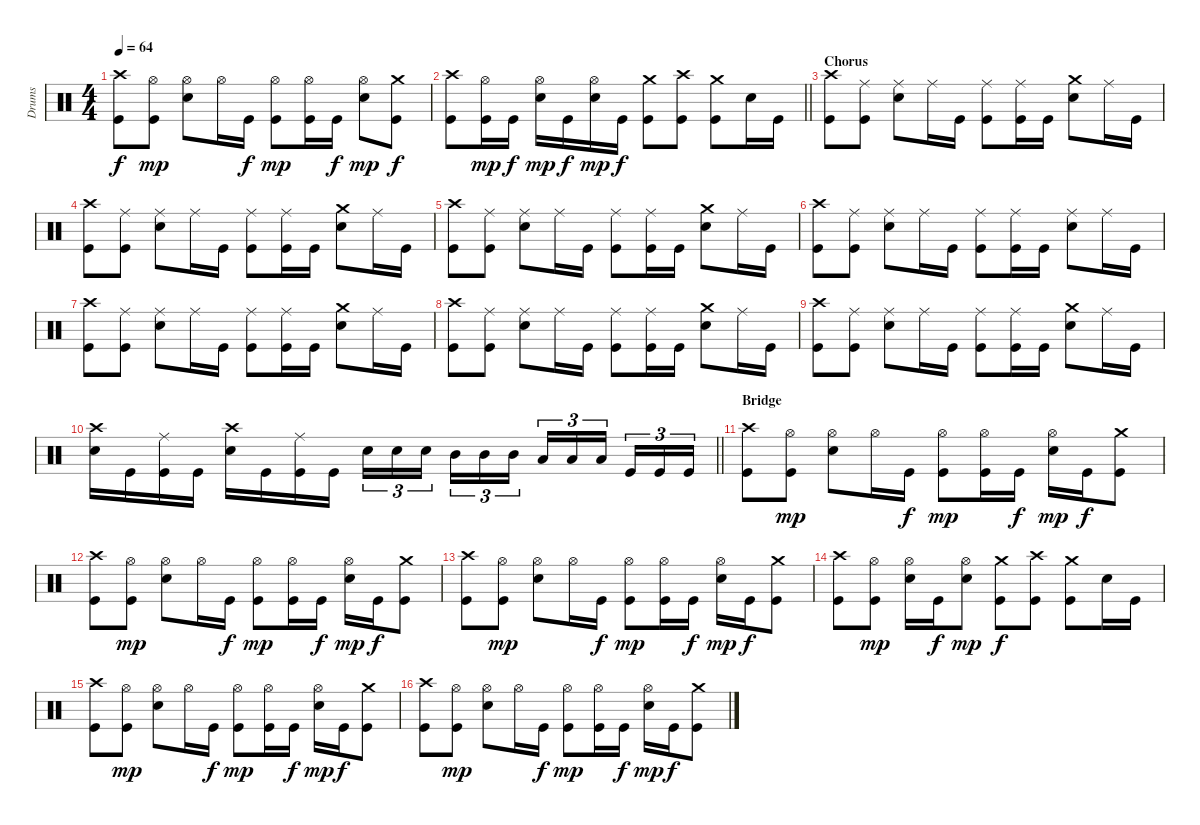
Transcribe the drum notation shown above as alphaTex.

\track ("Drums" "Drums") {instrument percussion}
\staff {score}
\articulation defaults
\ts (4 4)
\tempo 64
\clef neutral
\ks c
("Crash high (hit)" "Kick (hit)").8{dy f} ("Hi-Hat (open)" "Kick (hit)").8{dy mp} ("Hi-Hat (open)" "Snare (hit) 2").8 "Hi-Hat (open)".16 "Kick (hit)".16{dy f} ("Hi-Hat (open)" "Kick (hit)").8{dy mp} ("Hi-Hat (open)" "Kick (hit)").16 "Kick (hit)".16{dy f} ("Hi-Hat (open)" "Snare (hit) 2").8{dy mp} ("Crash medium (hit)" "Kick (hit)").8{dy f} |
\barLineRight lightlight
("Crash high (hit)" "Kick (hit)").8 ("Hi-Hat (open)" "Kick (hit)").16{dy mp} "Kick (hit)".16{dy f} ("Hi-Hat (open)" "Snare (hit) 2").16{dy mp} "Kick (hit)".16{dy f} ("Hi-Hat (open)" "Snare (hit) 2").16{dy mp} "Kick (hit)".16{dy f} ("Crash medium (hit)" "Kick (hit)").8 ("Crash high (hit)" "Kick (hit)").8 ("Crash medium (hit)" "Kick (hit)").8 "Snare (hit) 2".16 "Kick (hit)".16 |
\section ("" "Chorus")
("Crash high (hit)" "Kick (hit)").8 ("Ride (middle)" "Kick (hit)").8 ("Ride (middle)" "Snare (hit) 2").8 "Ride (middle)".16 "Kick (hit)".16 ("Ride (middle)" "Kick (hit)").8 ("Ride (middle)" "Kick (hit)").16 "Kick (hit)".16 ("Crash medium (hit)" "Snare (hit) 2").8 "Ride (middle)".16 "Kick (hit)".16 |
("Crash high (hit)" "Kick (hit)").8 ("Ride (middle)" "Kick (hit)").8 ("Ride (middle)" "Snare (hit) 2").8 "Ride (middle)".16 "Kick (hit)".16 ("Ride (middle)" "Kick (hit)").8 ("Ride (middle)" "Kick (hit)").16 "Kick (hit)".16 ("Crash medium (hit)" "Snare (hit) 2").8 "Ride (middle)".16 "Kick (hit)".16 |
("Crash high (hit)" "Kick (hit)").8 ("Ride (middle)" "Kick (hit)").8 ("Ride (middle)" "Snare (hit) 2").8 "Ride (middle)".16 "Kick (hit)".16 ("Ride (middle)" "Kick (hit)").8 ("Ride (middle)" "Kick (hit)").16 "Kick (hit)".16 ("Crash medium (hit)" "Snare (hit) 2").8 "Ride (middle)".16 "Kick (hit)".16 |
("Crash high (hit)" "Kick (hit)").8 ("Ride (middle)" "Kick (hit)").8 ("Ride (middle)" "Snare (hit) 2").8 "Ride (middle)".16 "Kick (hit)".16 ("Ride (middle)" "Kick (hit)").8 ("Ride (middle)" "Kick (hit)").16 "Kick (hit)".16 ("Ride (middle)" "Snare (hit) 2").8 "Ride (middle)".16 "Kick (hit)".16 |
("Crash high (hit)" "Kick (hit)").8 ("Ride (middle)" "Kick (hit)").8 ("Ride (middle)" "Snare (hit) 2").8 "Ride (middle)".16 "Kick (hit)".16 ("Ride (middle)" "Kick (hit)").8 ("Ride (middle)" "Kick (hit)").16 "Kick (hit)".16 ("Crash medium (hit)" "Snare (hit) 2").8 "Ride (middle)".16 "Kick (hit)".16 |
("Crash high (hit)" "Kick (hit)").8 ("Ride (middle)" "Kick (hit)").8 ("Ride (middle)" "Snare (hit) 2").8 "Ride (middle)".16 "Kick (hit)".16 ("Ride (middle)" "Kick (hit)").8 ("Ride (middle)" "Kick (hit)").16 "Kick (hit)".16 ("Crash medium (hit)" "Snare (hit) 2").8 "Ride (middle)".16 "Kick (hit)".16 |
("Crash high (hit)" "Kick (hit)").8 ("Ride (middle)" "Kick (hit)").8 ("Ride (middle)" "Snare (hit) 2").8 "Ride (middle)".16 "Kick (hit)".16 ("Ride (middle)" "Kick (hit)").8 ("Ride (middle)" "Kick (hit)").16 "Kick (hit)".16 ("Crash medium (hit)" "Snare (hit) 2").8 "Ride (middle)".16 "Kick (hit)".16 |
\barLineRight lightlight
("Crash high (hit)" "Snare (hit) 2").16 "Kick (hit)".16 ("Ride (middle)" "Kick (hit)").16 "Kick (hit)".16 ("Crash high (hit)" "Snare (hit) 2").16 "Kick (hit)".16 ("Ride (middle)" "Kick (hit)").16 "Kick (hit)".16 "Snare (hit) 2".16{tu (3 2)} "Snare (hit) 2".16{tu (3 2)} "Snare (hit) 2".16{tu (3 2)} "Mid Tom (hit)".16{tu (3 2)} "Mid Tom (hit)".16{tu (3 2)} "Mid Tom (hit)".16{tu (3 2)} "Low Tom (hit)".16{tu (3 2)} "Low Tom (hit)".16{tu (3 2)} "Low Tom (hit)".16{tu (3 2)} "Kick (hit)".16{tu (3 2)} "Kick (hit)".16{tu (3 2)} "Kick (hit)".16{tu (3 2)} |
\section ("" "Bridge")
("Crash high (hit)" "Kick (hit)").8 ("Hi-Hat (open)" "Kick (hit)").8{dy mp} ("Hi-Hat (open)" "Snare (hit) 2").8 "Hi-Hat (open)".16 "Kick (hit)".16{dy f} ("Hi-Hat (open)" "Kick (hit)").8{dy mp} ("Hi-Hat (open)" "Kick (hit)").16 "Kick (hit)".16{dy f} ("Hi-Hat (open)" "Snare (hit) 2").16{dy mp} "Kick (hit)".16{dy f} ("Crash medium (hit)" "Kick (hit)").8 |
("Crash high (hit)" "Kick (hit)").8 ("Hi-Hat (open)" "Kick (hit)").8{dy mp} ("Hi-Hat (open)" "Snare (hit) 2").8 "Hi-Hat (open)".16 "Kick (hit)".16{dy f} ("Hi-Hat (open)" "Kick (hit)").8{dy mp} ("Hi-Hat (open)" "Kick (hit)").16 "Kick (hit)".16{dy f} ("Hi-Hat (open)" "Snare (hit) 2").16{dy mp} "Kick (hit)".16{dy f} ("Crash medium (hit)" "Kick (hit)").8 |
("Crash high (hit)" "Kick (hit)").8 ("Hi-Hat (open)" "Kick (hit)").8{dy mp} ("Hi-Hat (open)" "Snare (hit) 2").8 "Hi-Hat (open)".16 "Kick (hit)".16{dy f} ("Hi-Hat (open)" "Kick (hit)").8{dy mp} ("Hi-Hat (open)" "Kick (hit)").16 "Kick (hit)".16{dy f} ("Hi-Hat (open)" "Snare (hit) 2").16{dy mp} "Kick (hit)".16{dy f} ("Crash medium (hit)" "Kick (hit)").8 |
("Crash high (hit)" "Kick (hit)").8 ("Hi-Hat (open)" "Kick (hit)").8{dy mp} ("Hi-Hat (open)" "Snare (hit) 2").16 "Kick (hit)".16{dy f} ("Hi-Hat (open)" "Snare (hit) 2").8{dy mp} ("Crash medium (hit)" "Kick (hit)").8{dy f} ("Crash high (hit)" "Kick (hit)").8 ("Crash medium (hit)" "Kick (hit)").8 "Snare (hit) 2".16 "Kick (hit)".16 |
("Crash high (hit)" "Kick (hit)").8 ("Hi-Hat (open)" "Kick (hit)").8{dy mp} ("Hi-Hat (open)" "Snare (hit) 2").8 "Hi-Hat (open)".16 "Kick (hit)".16{dy f} ("Hi-Hat (open)" "Kick (hit)").8{dy mp} ("Hi-Hat (open)" "Kick (hit)").16 "Kick (hit)".16{dy f} ("Hi-Hat (open)" "Snare (hit) 2").16{dy mp} "Kick (hit)".16{dy f} ("Crash medium (hit)" "Kick (hit)").8 |
("Crash high (hit)" "Kick (hit)").8 ("Hi-Hat (open)" "Kick (hit)").8{dy mp} ("Hi-Hat (open)" "Snare (hit) 2").8 "Hi-Hat (open)".16 "Kick (hit)".16{dy f} ("Hi-Hat (open)" "Kick (hit)").8{dy mp} ("Hi-Hat (open)" "Kick (hit)").16 "Kick (hit)".16{dy f} ("Hi-Hat (open)" "Snare (hit) 2").16{dy mp} "Kick (hit)".16{dy f} ("Crash medium (hit)" "Kick (hit)").8
